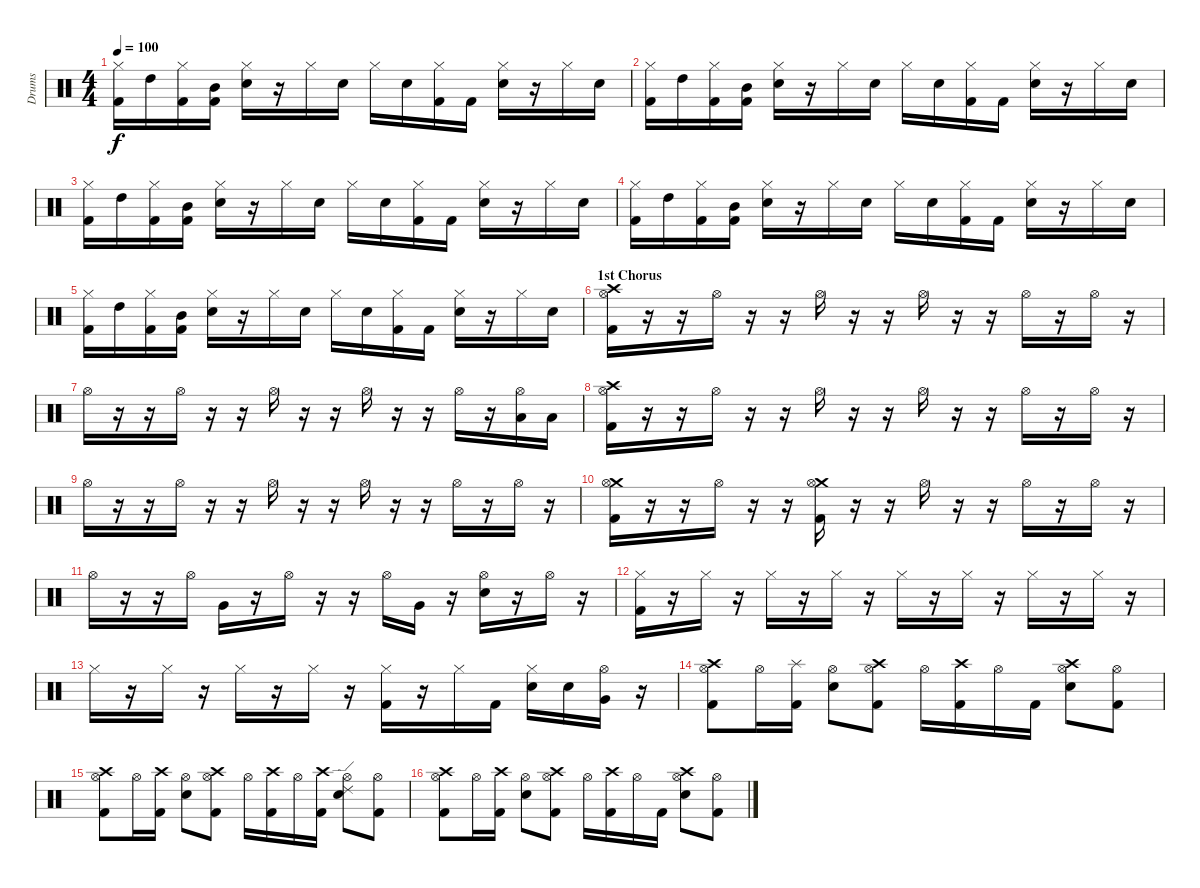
\track ("Drums" "Drums") {instrument percussion}
\staff {score}
\articulation defaults
\ts (4 4)
\tempo 100
\clef neutral
\ks c
("Hi-Hat (closed)" "Kick (hit) 2").16{dy f} "High Tom (hit)".16 ("Hi-Hat (closed)" "Kick (hit) 2").16 ("Mid Tom (hit)" "Kick (hit) 2").16 ("Hi-Hat (closed)" "Electric Snare (hit)").16 r.16 "Hi-Hat (closed)".16 "Electric Snare (hit)".16 "Hi-Hat (closed)".16 "Electric Snare (hit)".16 ("Hi-Hat (closed)" "Kick (hit) 2").16 "Kick (hit) 2".16 ("Hi-Hat (closed)" "Electric Snare (hit)").16 r.16 "Hi-Hat (closed)".16 "Electric Snare (hit)".16 |
("Hi-Hat (closed)" "Kick (hit) 2").16 "High Tom (hit)".16 ("Hi-Hat (closed)" "Kick (hit) 2").16 ("Mid Tom (hit)" "Kick (hit) 2").16 ("Hi-Hat (closed)" "Electric Snare (hit)").16 r.16 "Hi-Hat (closed)".16 "Electric Snare (hit)".16 "Hi-Hat (closed)".16 "Electric Snare (hit)".16 ("Hi-Hat (closed)" "Kick (hit) 2").16 "Kick (hit) 2".16 ("Hi-Hat (closed)" "Electric Snare (hit)").16 r.16 "Hi-Hat (closed)".16 "Electric Snare (hit)".16 |
("Hi-Hat (closed)" "Kick (hit) 2").16 "High Tom (hit)".16 ("Hi-Hat (closed)" "Kick (hit) 2").16 ("Mid Tom (hit)" "Kick (hit) 2").16 ("Hi-Hat (closed)" "Electric Snare (hit)").16 r.16 "Hi-Hat (closed)".16 "Electric Snare (hit)".16 "Hi-Hat (closed)".16 "Electric Snare (hit)".16 ("Hi-Hat (closed)" "Kick (hit) 2").16 "Kick (hit) 2".16 ("Hi-Hat (closed)" "Electric Snare (hit)").16 r.16 "Hi-Hat (closed)".16 "Electric Snare (hit)".16 |
("Hi-Hat (closed)" "Kick (hit) 2").16 "High Tom (hit)".16 ("Hi-Hat (closed)" "Kick (hit) 2").16 ("Mid Tom (hit)" "Kick (hit) 2").16 ("Hi-Hat (closed)" "Electric Snare (hit)").16 r.16 "Hi-Hat (closed)".16 "Electric Snare (hit)".16 "Hi-Hat (closed)".16 "Electric Snare (hit)".16 ("Hi-Hat (closed)" "Kick (hit) 2").16 "Kick (hit) 2".16 ("Hi-Hat (closed)" "Electric Snare (hit)").16 r.16 "Hi-Hat (closed)".16 "Electric Snare (hit)".16 |
("Hi-Hat (closed)" "Kick (hit) 2").16 "High Tom (hit)".16 ("Hi-Hat (closed)" "Kick (hit) 2").16 ("Mid Tom (hit)" "Kick (hit) 2").16 ("Hi-Hat (closed)" "Electric Snare (hit)").16 r.16 "Hi-Hat (closed)".16 "Electric Snare (hit)".16 "Hi-Hat (closed)".16 "Electric Snare (hit)".16 ("Hi-Hat (closed)" "Kick (hit) 2").16 "Kick (hit) 2".16 ("Hi-Hat (closed)" "Electric Snare (hit)").16 r.16 "Hi-Hat (closed)".16 "Electric Snare (hit)".16 |
\section ("" "1st Chorus")
("Crash high (hit)" "Hi-Hat (open)" "Kick (hit) 2").16 r.16 r.16 "Hi-Hat (open)".16 r.16 r.16 "Hi-Hat (open)".16 r.16 r.16 "Hi-Hat (open)".16 r.16 r.16 "Hi-Hat (open)".16 r.16 "Hi-Hat (open)".16 r.16 |
"Hi-Hat (open)".16 r.16 r.16 "Hi-Hat (open)".16 r.16 r.16 "Hi-Hat (open)".16 r.16 r.16 "Hi-Hat (open)".16 r.16 r.16 "Hi-Hat (open)".16 r.16 ("Hi-Hat (open)" "Low Tom (hit)").16 "Low Tom (hit)".16 |
("Crash high (hit)" "Hi-Hat (open)" "Kick (hit) 2").16 r.16 r.16 "Hi-Hat (open)".16 r.16 r.16 "Hi-Hat (open)".16 r.16 r.16 "Hi-Hat (open)".16 r.16 r.16 "Hi-Hat (open)".16 r.16 "Hi-Hat (open)".16 r.16 |
"Hi-Hat (open)".16 r.16 r.16 "Hi-Hat (open)".16 r.16 r.16 "Hi-Hat (open)".16 r.16 r.16 "Hi-Hat (open)".16 r.16 r.16 "Hi-Hat (open)".16 r.16 "Hi-Hat (open)".16 r.16 |
("Crash medium (hit)" "Hi-Hat (open)" "Kick (hit) 2").16 r.16 r.16 "Hi-Hat (open)".16 r.16 r.16 ("Crash medium (hit)" "Hi-Hat (open)" "Kick (hit) 2").16 r.16 r.16 "Hi-Hat (open)".16 r.16 r.16 "Hi-Hat (open)".16 r.16 "Hi-Hat (open)".16 r.16 |
"Hi-Hat (open)".16 r.16 r.16 "Hi-Hat (open)".16 "Very Low Tom (hit)".16 r.16 "Hi-Hat (open)".16 r.16 r.16 "Hi-Hat (open)".16 "Very Low Tom (hit)".16 r.16 ("Hi-Hat (open)" "Snare (hit) 2").16 r.16 "Hi-Hat (open)".16 r.16 |
("Hi-Hat (closed)" "Kick (hit) 2").16 r.16 "Hi-Hat (closed)".16 r.16 "Hi-Hat (closed)".16 r.16 "Hi-Hat (closed)".16 r.16 "Hi-Hat (closed)".16 r.16 "Hi-Hat (closed)".16 r.16 "Hi-Hat (closed)".16 r.16 "Hi-Hat (closed)".16 r.16 |
"Hi-Hat (closed)".16 r.16 "Hi-Hat (closed)".16 r.16 "Hi-Hat (closed)".16 r.16 "Hi-Hat (closed)".16 r.16 ("Hi-Hat (closed)" "Kick (hit) 2").16 r.16 "Hi-Hat (closed)".16 "Kick (hit) 2".16 ("Hi-Hat (closed)" "Electric Snare (hit)").16 "Electric Snare (hit)".16 ("Hi-Hat (open)" "Very Low Tom (hit)").16 r.16 |
("Hi-Hat (open)" "Crash high (hit)" "Kick (hit) 2").8 "Hi-Hat (open)".16 ("Splash (hit)" "Kick (hit) 2").16 ("Hi-Hat (open)" "Electric Snare (hit)").8 ("Hi-Hat (open)" "Crash high (hit)" "Kick (hit) 2").8 "Hi-Hat (open)".16 ("Crash high (hit)" "Kick (hit) 2").16 "Hi-Hat (open)".16 "Kick (hit) 2".16 ("Hi-Hat (open)" "Crash high (hit)" "Electric Snare (hit)").8 ("Hi-Hat (open)" "Kick (hit) 2").8 |
("Hi-Hat (open)" "Crash high (hit)" "Kick (hit) 2").8 "Hi-Hat (open)".16 ("Crash high (hit)" "Kick (hit) 2").16 ("Hi-Hat (open)" "Electric Snare (hit)").8 ("Hi-Hat (open)" "Crash high (hit)" "Kick (hit) 2").8 "Hi-Hat (open)".16 ("Crash high (hit)" "Kick (hit) 2").16 "Hi-Hat (open)".16 ("Crash high (hit)" "Kick (hit) 2").16 ("Hi-Hat (open)" "Ride (edge) 2" "Electric Snare (hit)").8 ("Hi-Hat (open)" "Kick (hit) 2").8 |
("Hi-Hat (open)" "Crash high (hit)" "Kick (hit) 2").8 "Hi-Hat (open)".16 ("Crash high (hit)" "Kick (hit) 2").16 ("Hi-Hat (open)" "Electric Snare (hit)").8 ("Hi-Hat (open)" "Crash high (hit)" "Kick (hit) 2").8 "Hi-Hat (open)".16 ("Crash high (hit)" "Kick (hit) 2").16 "Hi-Hat (open)".16 "Kick (hit) 2".16 ("Hi-Hat (open)" "Crash high (hit)" "Electric Snare (hit)").8 ("Hi-Hat (open)" "Kick (hit) 2").8
